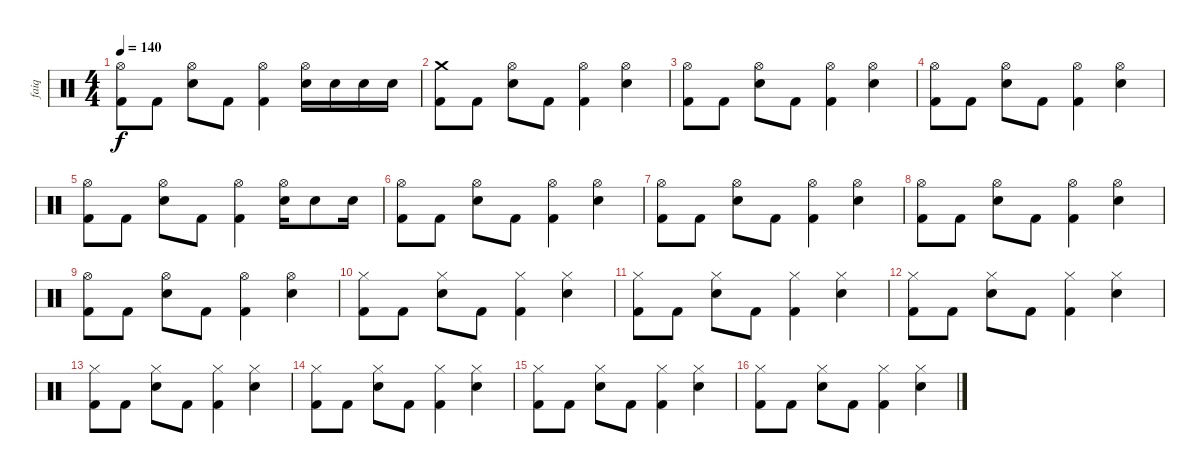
\track ("faiq" "faiq") {instrument percussion}
\staff {score}
\articulation defaults
\ts (4 4)
\tempo 140
\clef neutral
\ks c
("Hi-Hat (open)" "Kick (hit) 2").8{dy f} "Kick (hit) 2".8 ("Hi-Hat (open)" "Electric Snare (hit)").8 "Kick (hit) 2".8 ("Hi-Hat (open)" "Kick (hit) 2").4 ("Hi-Hat (open)" "Electric Snare (hit)").16 "Electric Snare (hit)".16 "Electric Snare (hit)".16 "Electric Snare (hit)".16 |
("Crash medium (hit)" "Kick (hit) 2").8 "Kick (hit) 2".8 ("Hi-Hat (open)" "Electric Snare (hit)").8 "Kick (hit) 2".8 ("Hi-Hat (open)" "Kick (hit) 2").4 ("Hi-Hat (open)" "Electric Snare (hit)").4 |
("Hi-Hat (open)" "Kick (hit) 2").8 "Kick (hit) 2".8 ("Hi-Hat (open)" "Electric Snare (hit)").8 "Kick (hit) 2".8 ("Hi-Hat (open)" "Kick (hit) 2").4 ("Hi-Hat (open)" "Electric Snare (hit)").4 |
("Hi-Hat (open)" "Kick (hit) 2").8 "Kick (hit) 2".8 ("Hi-Hat (open)" "Electric Snare (hit)").8 "Kick (hit) 2".8 ("Hi-Hat (open)" "Kick (hit) 2").4 ("Hi-Hat (open)" "Electric Snare (hit)").4 |
("Hi-Hat (open)" "Kick (hit) 2").8 "Kick (hit) 2".8 ("Hi-Hat (open)" "Electric Snare (hit)").8 "Kick (hit) 2".8 ("Hi-Hat (open)" "Kick (hit) 2").4 ("Hi-Hat (open)" "Electric Snare (hit)").16 "Electric Snare (hit)".8 "Electric Snare (hit)".16 |
("Hi-Hat (open)" "Kick (hit) 2").8 "Kick (hit) 2".8 ("Hi-Hat (open)" "Electric Snare (hit)").8 "Kick (hit) 2".8 ("Hi-Hat (open)" "Kick (hit) 2").4 ("Hi-Hat (open)" "Electric Snare (hit)").4 |
("Hi-Hat (open)" "Kick (hit) 2").8 "Kick (hit) 2".8 ("Hi-Hat (open)" "Electric Snare (hit)").8 "Kick (hit) 2".8 ("Hi-Hat (open)" "Kick (hit) 2").4 ("Hi-Hat (open)" "Electric Snare (hit)").4 |
("Hi-Hat (open)" "Kick (hit) 2").8 "Kick (hit) 2".8 ("Hi-Hat (open)" "Electric Snare (hit)").8 "Kick (hit) 2".8 ("Hi-Hat (open)" "Kick (hit) 2").4 ("Hi-Hat (open)" "Electric Snare (hit)").4 |
("Hi-Hat (open)" "Kick (hit) 2").8 "Kick (hit) 2".8 ("Hi-Hat (open)" "Electric Snare (hit)").8 "Kick (hit) 2".8 ("Hi-Hat (open)" "Kick (hit) 2").4 ("Hi-Hat (open)" "Electric Snare (hit)").4 |
("Hi-Hat (closed)" "Kick (hit) 2").8 "Kick (hit) 2".8 ("Hi-Hat (closed)" "Electric Snare (hit)").8 "Kick (hit) 2".8 ("Hi-Hat (closed)" "Kick (hit) 2").4 ("Hi-Hat (closed)" "Electric Snare (hit)").4 |
("Hi-Hat (closed)" "Kick (hit) 2").8 "Kick (hit) 2".8 ("Hi-Hat (closed)" "Electric Snare (hit)").8 "Kick (hit) 2".8 ("Hi-Hat (closed)" "Kick (hit) 2").4 ("Hi-Hat (closed)" "Electric Snare (hit)").4 |
("Hi-Hat (closed)" "Kick (hit) 2").8 "Kick (hit) 2".8 ("Hi-Hat (closed)" "Electric Snare (hit)").8 "Kick (hit) 2".8 ("Hi-Hat (closed)" "Kick (hit) 2").4 ("Hi-Hat (closed)" "Electric Snare (hit)").4 |
("Hi-Hat (closed)" "Kick (hit) 2").8 "Kick (hit) 2".8 ("Hi-Hat (closed)" "Electric Snare (hit)").8 "Kick (hit) 2".8 ("Hi-Hat (closed)" "Kick (hit) 2").4 ("Hi-Hat (closed)" "Electric Snare (hit)").4 |
("Hi-Hat (closed)" "Kick (hit) 2").8 "Kick (hit) 2".8 ("Hi-Hat (closed)" "Electric Snare (hit)").8 "Kick (hit) 2".8 ("Hi-Hat (closed)" "Kick (hit) 2").4 ("Hi-Hat (closed)" "Electric Snare (hit)").4 |
("Hi-Hat (closed)" "Kick (hit) 2").8 "Kick (hit) 2".8 ("Hi-Hat (closed)" "Electric Snare (hit)").8 "Kick (hit) 2".8 ("Hi-Hat (closed)" "Kick (hit) 2").4 ("Hi-Hat (closed)" "Electric Snare (hit)").4 |
("Hi-Hat (closed)" "Kick (hit) 2").8 "Kick (hit) 2".8 ("Hi-Hat (closed)" "Electric Snare (hit)").8 "Kick (hit) 2".8 ("Hi-Hat (closed)" "Kick (hit) 2").4 ("Hi-Hat (closed)" "Electric Snare (hit)").4
